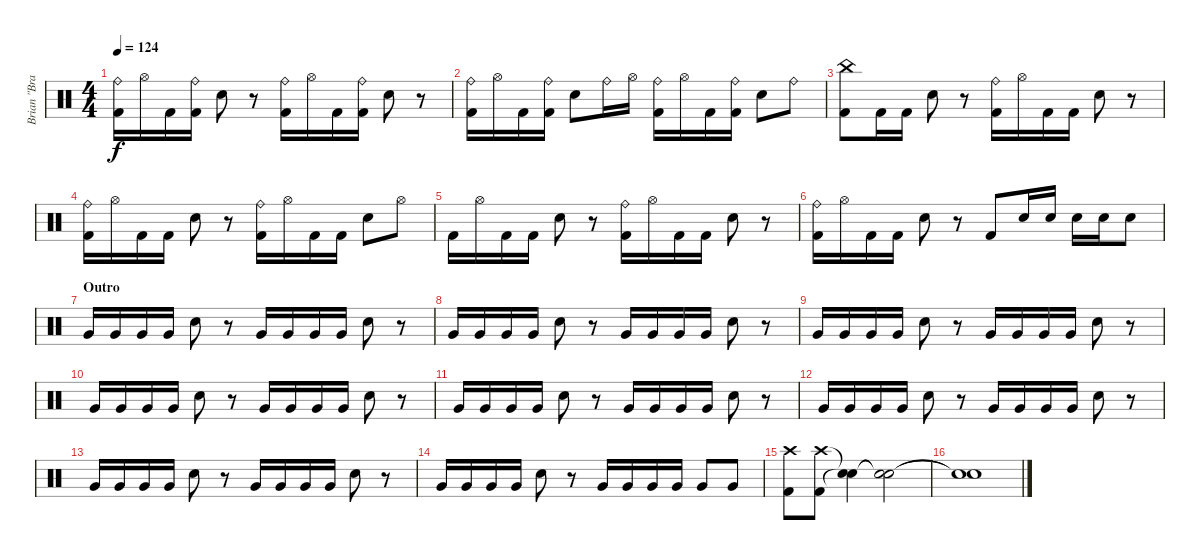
\track ("Brian \"Brain\" Mantia / Drums" "Brian \"Bra") {instrument percussion}
\staff {score}
\articulation defaults
\ts (4 4)
\tempo 124
\clef neutral
\ks c
("Ride (bell)" "Kick (hit) 2").16{dy f} "Hi-Hat (open)".16 "Kick (hit) 2".16 ("Ride (bell)" "Kick (hit) 2").16 "Electric Snare (hit)".8 r.8 ("Ride (bell)" "Kick (hit) 2").16 "Hi-Hat (open)".16 "Kick (hit) 2".16 ("Ride (bell)" "Kick (hit) 2").16 "Electric Snare (hit)".8 r.8 |
("Ride (bell)" "Kick (hit) 2").16 "Hi-Hat (open)".16 "Kick (hit) 2".16 ("Ride (bell)" "Kick (hit) 2").16 "Electric Snare (hit)".8 "Ride (bell)".16 "Hi-Hat (open)".16 ("Ride (bell)" "Kick (hit) 2").16 "Hi-Hat (open)".16 "Kick (hit) 2".16 ("Ride (bell)" "Kick (hit) 2").16 "Electric Snare (hit)".8 "Ride (bell)".8 |
("China (hit)" "Kick (hit) 2").8 "Kick (hit) 2".16 "Kick (hit) 2".16 "Electric Snare (hit)".8 r.8 ("Ride (bell)" "Kick (hit) 2").16 "Hi-Hat (open)".16 "Kick (hit) 2".16 "Kick (hit) 2".16 "Electric Snare (hit)".8 r.8 |
("Ride (bell)" "Kick (hit) 2").16 "Hi-Hat (open)".16 "Kick (hit) 2".16 "Kick (hit) 2".16 "Electric Snare (hit)".8 r.8 ("Ride (bell)" "Kick (hit) 2").16 "Hi-Hat (open)".16 "Kick (hit) 2".16 "Kick (hit) 2".16 "Electric Snare (hit)".8 "Hi-Hat (open)".8 |
"Kick (hit) 2".16 "Hi-Hat (open)".16 "Kick (hit) 2".16 "Kick (hit) 2".16 "Electric Snare (hit)".8 r.8 ("Ride (bell)" "Kick (hit) 2").16 "Hi-Hat (open)".16 "Kick (hit) 2".16 "Kick (hit) 2".16 "Electric Snare (hit)".8 r.8 |
("Ride (bell)" "Kick (hit) 2").16 "Hi-Hat (open)".16 "Kick (hit) 2".16 "Kick (hit) 2".16 "Electric Snare (hit)".8 r.8 "Kick (hit) 2".8 "Electric Snare (hit)".16 "Electric Snare (hit)".16 "Electric Snare (hit)".16 "Electric Snare (hit)".16 "Electric Snare (hit)".8 |
\section ("" "Outro")
"Very Low Tom (hit)".16 "Very Low Tom (hit)".16 "Very Low Tom (hit)".16 "Very Low Tom (hit)".16 "Electric Snare (hit)".8 r.8 "Very Low Tom (hit)".16 "Very Low Tom (hit)".16 "Very Low Tom (hit)".16 "Very Low Tom (hit)".16 "Electric Snare (hit)".8 r.8 |
"Very Low Tom (hit)".16 "Very Low Tom (hit)".16 "Very Low Tom (hit)".16 "Very Low Tom (hit)".16 "Electric Snare (hit)".8 r.8 "Very Low Tom (hit)".16 "Very Low Tom (hit)".16 "Very Low Tom (hit)".16 "Very Low Tom (hit)".16 "Electric Snare (hit)".8 r.8 |
"Very Low Tom (hit)".16 "Very Low Tom (hit)".16 "Very Low Tom (hit)".16 "Very Low Tom (hit)".16 "Electric Snare (hit)".8 r.8 "Very Low Tom (hit)".16 "Very Low Tom (hit)".16 "Very Low Tom (hit)".16 "Very Low Tom (hit)".16 "Electric Snare (hit)".8 r.8 |
"Very Low Tom (hit)".16 "Very Low Tom (hit)".16 "Very Low Tom (hit)".16 "Very Low Tom (hit)".16 "Electric Snare (hit)".8 r.8 "Very Low Tom (hit)".16 "Very Low Tom (hit)".16 "Very Low Tom (hit)".16 "Very Low Tom (hit)".16 "Electric Snare (hit)".8 r.8 |
"Very Low Tom (hit)".16 "Very Low Tom (hit)".16 "Very Low Tom (hit)".16 "Very Low Tom (hit)".16 "Electric Snare (hit)".8 r.8 "Very Low Tom (hit)".16 "Very Low Tom (hit)".16 "Very Low Tom (hit)".16 "Very Low Tom (hit)".16 "Electric Snare (hit)".8 r.8 |
"Very Low Tom (hit)".16 "Very Low Tom (hit)".16 "Very Low Tom (hit)".16 "Very Low Tom (hit)".16 "Electric Snare (hit)".8 r.8 "Very Low Tom (hit)".16 "Very Low Tom (hit)".16 "Very Low Tom (hit)".16 "Very Low Tom (hit)".16 "Electric Snare (hit)".8 r.8 |
"Very Low Tom (hit)".16 "Very Low Tom (hit)".16 "Very Low Tom (hit)".16 "Very Low Tom (hit)".16 "Electric Snare (hit)".8 r.8 "Very Low Tom (hit)".16 "Very Low Tom (hit)".16 "Very Low Tom (hit)".16 "Very Low Tom (hit)".16 "Electric Snare (hit)".8 r.8 |
"Very Low Tom (hit)".16 "Very Low Tom (hit)".16 "Very Low Tom (hit)".16 "Very Low Tom (hit)".16 "Electric Snare (hit)".8 r.8 "Very Low Tom (hit)".16 "Very Low Tom (hit)".16 "Very Low Tom (hit)".16 "Very Low Tom (hit)".16 "Very Low Tom (hit)".8 "Very Low Tom (hit)".8 |
("Crash high (hit)" "Kick (hit) 2").8 ("Crash high (hit)" "Kick (hit) 2").8 ("Snare (hit)"{t} "Snare (hit)"{t}).4 ("Snare (hit)"{t} "Snare (hit)"{t}).2 |
("Snare (hit)"{t} "Snare (hit)"{t}).1
